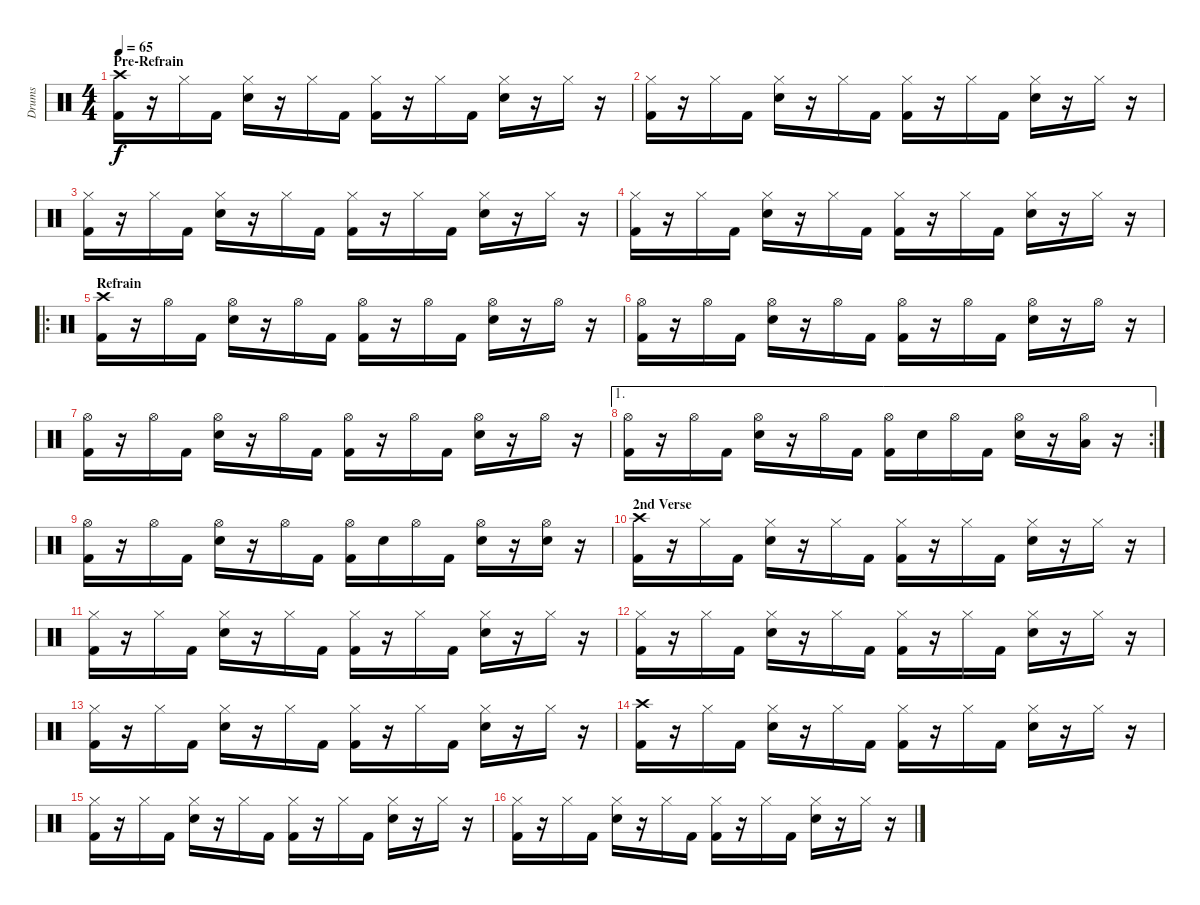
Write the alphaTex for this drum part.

\track ("Drums" "Drums") {instrument percussion}
\staff {score}
\articulation defaults
\ts (4 4)
\section ("" "Pre-Refrain")
\tempo 65
\clef neutral
\ks c
("Crash high (hit)" "Kick (hit) 2").16{dy f} r.16 "Hi-Hat (closed)".16 "Kick (hit) 2".16 ("Hi-Hat (closed)" "Snare (hit) 2").16 r.16 "Hi-Hat (closed)".16 "Kick (hit) 2".16 ("Hi-Hat (closed)" "Kick (hit) 2").16 r.16 "Hi-Hat (closed)".16 "Kick (hit) 2".16 ("Hi-Hat (closed)" "Snare (hit) 2").16 r.16 "Hi-Hat (closed)".16 r.16 |
("Hi-Hat (closed)" "Kick (hit) 2").16 r.16 "Hi-Hat (closed)".16 "Kick (hit) 2".16 ("Hi-Hat (closed)" "Snare (hit) 2").16 r.16 "Hi-Hat (closed)".16 "Kick (hit) 2".16 ("Hi-Hat (closed)" "Kick (hit) 2").16 r.16 "Hi-Hat (closed)".16 "Kick (hit) 2".16 ("Hi-Hat (closed)" "Snare (hit) 2").16 r.16 "Hi-Hat (closed)".16 r.16 |
("Hi-Hat (closed)" "Kick (hit) 2").16 r.16 "Hi-Hat (closed)".16 "Kick (hit) 2".16 ("Hi-Hat (closed)" "Snare (hit) 2").16 r.16 "Hi-Hat (closed)".16 "Kick (hit) 2".16 ("Hi-Hat (closed)" "Kick (hit) 2").16 r.16 "Hi-Hat (closed)".16 "Kick (hit) 2".16 ("Hi-Hat (closed)" "Snare (hit) 2").16 r.16 "Hi-Hat (closed)".16 r.16 |
("Hi-Hat (closed)" "Kick (hit) 2").16 r.16 "Hi-Hat (closed)".16 "Kick (hit) 2".16 ("Hi-Hat (closed)" "Snare (hit) 2").16 r.16 "Hi-Hat (closed)".16 "Kick (hit) 2".16 ("Hi-Hat (closed)" "Kick (hit) 2").16 r.16 "Hi-Hat (closed)".16 "Kick (hit) 2".16 ("Hi-Hat (closed)" "Snare (hit) 2").16 r.16 "Hi-Hat (closed)".16 r.16 |
\ro
\section ("" "Refrain")
("Crash high (hit)" "Kick (hit) 2").16 r.16 "Hi-Hat (open)".16 "Kick (hit) 2".16 ("Hi-Hat (open)" "Snare (hit) 2").16 r.16 "Hi-Hat (open)".16 "Kick (hit) 2".16 ("Hi-Hat (open)" "Kick (hit) 2").16 r.16 "Hi-Hat (open)".16 "Kick (hit) 2".16 ("Hi-Hat (open)" "Snare (hit) 2").16 r.16 "Hi-Hat (open)".16 r.16 |
("Hi-Hat (open)" "Kick (hit) 2").16 r.16 "Hi-Hat (open)".16 "Kick (hit) 2".16 ("Hi-Hat (open)" "Snare (hit) 2").16 r.16 "Hi-Hat (open)".16 "Kick (hit) 2".16 ("Hi-Hat (open)" "Kick (hit) 2").16 r.16 "Hi-Hat (open)".16 "Kick (hit) 2".16 ("Hi-Hat (open)" "Snare (hit) 2").16 r.16 "Hi-Hat (open)".16 r.16 |
("Hi-Hat (open)" "Kick (hit) 2").16 r.16 "Hi-Hat (open)".16 "Kick (hit) 2".16 ("Hi-Hat (open)" "Snare (hit) 2").16 r.16 "Hi-Hat (open)".16 "Kick (hit) 2".16 ("Hi-Hat (open)" "Kick (hit) 2").16 r.16 "Hi-Hat (open)".16 "Kick (hit) 2".16 ("Hi-Hat (open)" "Snare (hit) 2").16 r.16 "Hi-Hat (open)".16 r.16 |
\ae 1
\rc 2
("Hi-Hat (open)" "Kick (hit) 2").16 r.16 "Hi-Hat (open)".16 "Kick (hit) 2".16 ("Hi-Hat (open)" "Snare (hit) 2").16 r.16 "Hi-Hat (open)".16 "Kick (hit) 2".16 ("Hi-Hat (open)" "Kick (hit) 2").16 "Snare (hit) 2".16 "Hi-Hat (open)".16 "Kick (hit) 2".16 ("Hi-Hat (open)" "Snare (hit) 2").16 r.16 ("Hi-Hat (open)" "Low Tom (hit)").16 r.16 |
("Hi-Hat (open)" "Kick (hit) 2").16 r.16 "Hi-Hat (open)".16 "Kick (hit) 2".16 ("Hi-Hat (open)" "Snare (hit) 2").16 r.16 "Hi-Hat (open)".16 "Kick (hit) 2".16 ("Hi-Hat (open)" "Kick (hit) 2").16 "Snare (hit) 2".16 "Hi-Hat (open)".16 "Kick (hit) 2".16 ("Hi-Hat (open)" "Snare (hit) 2").16 r.16 ("Hi-Hat (open)" "Snare (hit) 2").16 r.16 |
\section ("" "2nd Verse")
("Crash high (hit)" "Kick (hit) 2").16 r.16 "Hi-Hat (closed)".16 "Kick (hit) 2".16 ("Hi-Hat (closed)" "Snare (hit) 2").16 r.16 "Hi-Hat (closed)".16 "Kick (hit) 2".16 ("Hi-Hat (closed)" "Kick (hit) 2").16 r.16 "Hi-Hat (closed)".16 "Kick (hit) 2".16 ("Hi-Hat (closed)" "Snare (hit) 2").16 r.16 "Hi-Hat (closed)".16 r.16 |
("Hi-Hat (closed)" "Kick (hit) 2").16 r.16 "Hi-Hat (closed)".16 "Kick (hit) 2".16 ("Hi-Hat (closed)" "Snare (hit) 2").16 r.16 "Hi-Hat (closed)".16 "Kick (hit) 2".16 ("Hi-Hat (closed)" "Kick (hit) 2").16 r.16 "Hi-Hat (closed)".16 "Kick (hit) 2".16 ("Hi-Hat (closed)" "Snare (hit) 2").16 r.16 "Hi-Hat (closed)".16 r.16 |
("Hi-Hat (closed)" "Kick (hit) 2").16 r.16 "Hi-Hat (closed)".16 "Kick (hit) 2".16 ("Hi-Hat (closed)" "Snare (hit) 2").16 r.16 "Hi-Hat (closed)".16 "Kick (hit) 2".16 ("Hi-Hat (closed)" "Kick (hit) 2").16 r.16 "Hi-Hat (closed)".16 "Kick (hit) 2".16 ("Hi-Hat (closed)" "Snare (hit) 2").16 r.16 "Hi-Hat (closed)".16 r.16 |
("Hi-Hat (closed)" "Kick (hit) 2").16 r.16 "Hi-Hat (closed)".16 "Kick (hit) 2".16 ("Hi-Hat (closed)" "Snare (hit) 2").16 r.16 "Hi-Hat (closed)".16 "Kick (hit) 2".16 ("Hi-Hat (closed)" "Kick (hit) 2").16 r.16 "Hi-Hat (closed)".16 "Kick (hit) 2".16 ("Hi-Hat (closed)" "Snare (hit) 2").16 r.16 "Hi-Hat (closed)".16 r.16 |
("Crash high (hit)" "Kick (hit) 2").16 r.16 "Hi-Hat (closed)".16 "Kick (hit) 2".16 ("Hi-Hat (closed)" "Snare (hit) 2").16 r.16 "Hi-Hat (closed)".16 "Kick (hit) 2".16 ("Hi-Hat (closed)" "Kick (hit) 2").16 r.16 "Hi-Hat (closed)".16 "Kick (hit) 2".16 ("Hi-Hat (closed)" "Snare (hit) 2").16 r.16 "Hi-Hat (closed)".16 r.16 |
("Hi-Hat (closed)" "Kick (hit) 2").16 r.16 "Hi-Hat (closed)".16 "Kick (hit) 2".16 ("Hi-Hat (closed)" "Snare (hit) 2").16 r.16 "Hi-Hat (closed)".16 "Kick (hit) 2".16 ("Hi-Hat (closed)" "Kick (hit) 2").16 r.16 "Hi-Hat (closed)".16 "Kick (hit) 2".16 ("Hi-Hat (closed)" "Snare (hit) 2").16 r.16 "Hi-Hat (closed)".16 r.16 |
("Hi-Hat (closed)" "Kick (hit) 2").16 r.16 "Hi-Hat (closed)".16 "Kick (hit) 2".16 ("Hi-Hat (closed)" "Snare (hit) 2").16 r.16 "Hi-Hat (closed)".16 "Kick (hit) 2".16 ("Hi-Hat (closed)" "Kick (hit) 2").16 r.16 "Hi-Hat (closed)".16 "Kick (hit) 2".16 ("Hi-Hat (closed)" "Snare (hit) 2").16 r.16 "Hi-Hat (closed)".16 r.16
